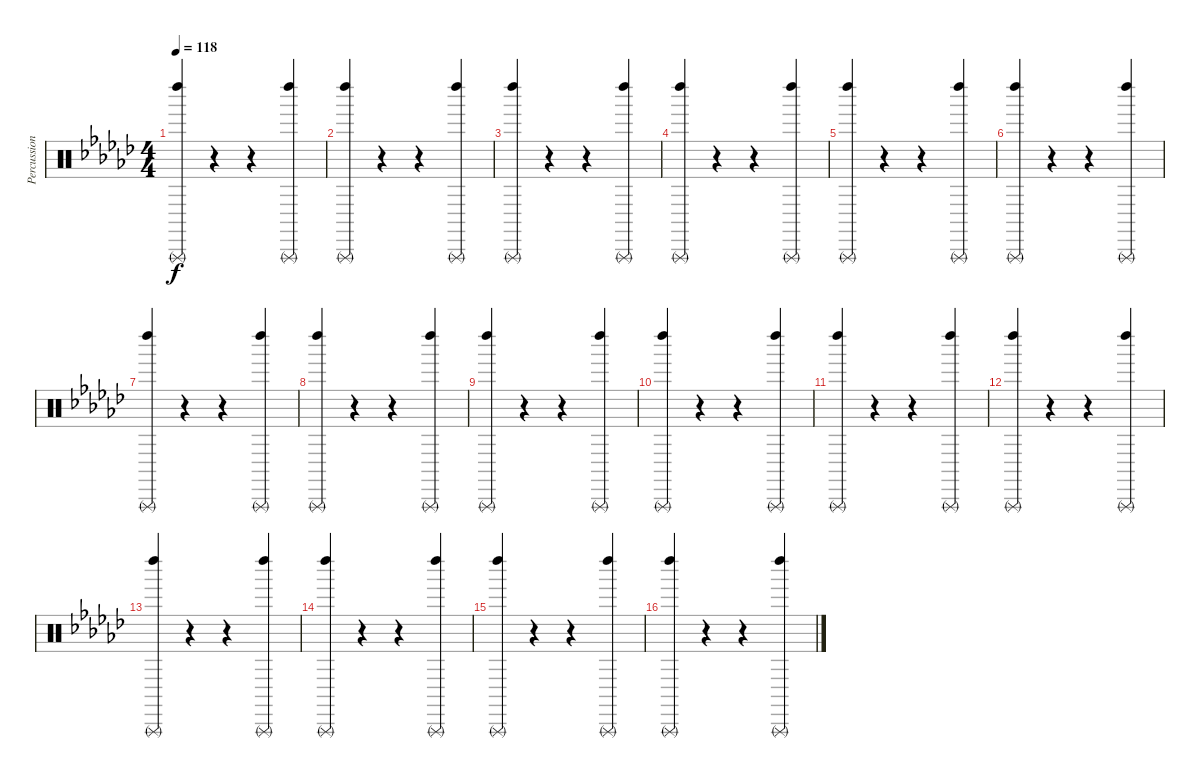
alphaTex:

\track ("Percussions 1" "Percussion") {instrument percussion}
\staff {score}
\articulation defaults
\ts (4 4)
\tempo 118
\clef neutral
\ks ebminor
("Triangle (rnute)" "Left Maraca (hit)").4{dy f} r.4 r.4 ("Triangle (rnute)" "Left Maraca (hit)").4 |
("Triangle (rnute)" "Left Maraca (hit)").4 r.4 r.4 ("Triangle (rnute)" "Left Maraca (hit)").4 |
("Triangle (rnute)" "Left Maraca (hit)").4 r.4 r.4 ("Triangle (rnute)" "Left Maraca (hit)").4 |
("Triangle (rnute)" "Left Maraca (hit)").4 r.4 r.4 ("Triangle (rnute)" "Left Maraca (hit)").4 |
("Triangle (rnute)" "Left Maraca (hit)").4 r.4 r.4 ("Triangle (rnute)" "Left Maraca (hit)").4 |
("Triangle (rnute)" "Left Maraca (hit)").4 r.4 r.4 ("Triangle (rnute)" "Left Maraca (hit)").4 |
("Triangle (rnute)" "Left Maraca (hit)").4 r.4 r.4 ("Triangle (rnute)" "Left Maraca (hit)").4 |
("Triangle (rnute)" "Left Maraca (hit)").4 r.4 r.4 ("Triangle (rnute)" "Left Maraca (hit)").4 |
("Triangle (rnute)" "Left Maraca (hit)").4 r.4 r.4 ("Triangle (rnute)" "Left Maraca (hit)").4 |
("Triangle (rnute)" "Left Maraca (hit)").4 r.4 r.4 ("Triangle (rnute)" "Left Maraca (hit)").4 |
("Triangle (rnute)" "Left Maraca (hit)").4 r.4 r.4 ("Triangle (rnute)" "Left Maraca (hit)").4 |
("Triangle (rnute)" "Left Maraca (hit)").4 r.4 r.4 ("Triangle (rnute)" "Left Maraca (hit)").4 |
("Triangle (rnute)" "Left Maraca (hit)").4{volume 7} r.4 r.4 ("Triangle (rnute)" "Left Maraca (hit)").4 |
("Triangle (rnute)" "Left Maraca (hit)").4 r.4 r.4 ("Triangle (rnute)" "Left Maraca (hit)").4 |
("Triangle (rnute)" "Left Maraca (hit)").4 r.4 r.4 ("Triangle (rnute)" "Left Maraca (hit)").4 |
("Triangle (rnute)" "Left Maraca (hit)").4 r.4 r.4 ("Triangle (rnute)" "Left Maraca (hit)").4
